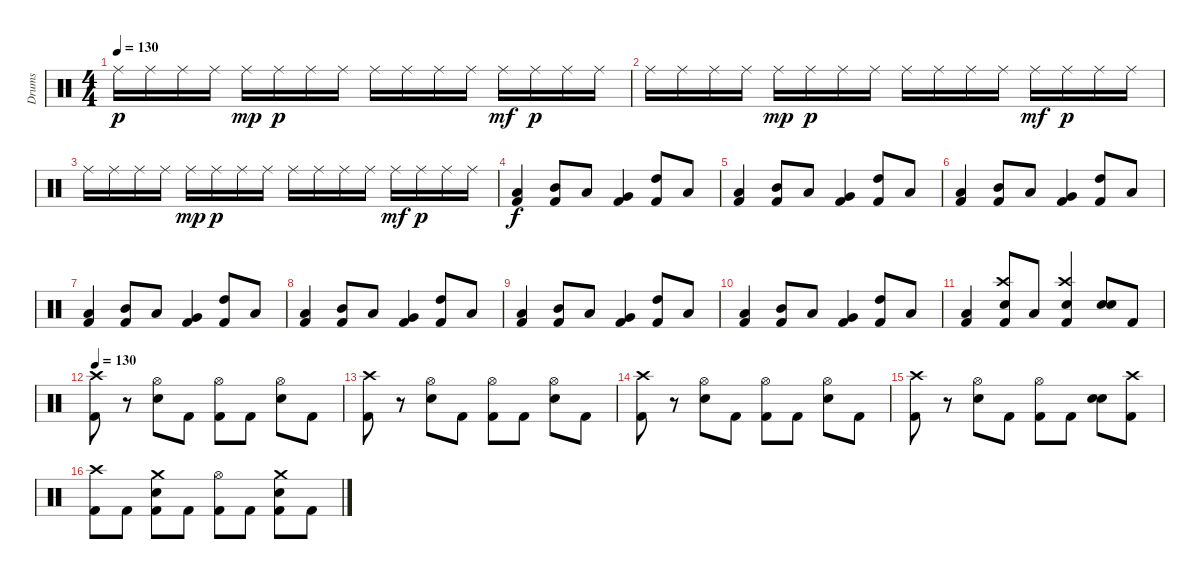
\track ("Drums" "Drums") {instrument percussion}
\staff {score}
\articulation defaults
\ts (4 4)
\tempo 130
\clef neutral
\ks c "Ride (middle)".16{dy p} "Ride (middle)".16 "Ride (middle)".16 "Ride (middle)".16 "Ride (middle)".16{dy mp} "Ride (middle)".16{dy p} "Ride (middle)".16 "Ride (middle)".16 "Ride (middle)".16 "Ride (middle)".16 "Ride (middle)".16 "Ride (middle)".16 "Ride (middle)".16{dy mf} "Ride (middle)".16{dy p} "Ride (middle)".16 "Ride (middle)".16
|
"Ride (middle)".16 "Ride (middle)".16 "Ride (middle)".16 "Ride (middle)".16 "Ride (middle)".16{dy mp} "Ride (middle)".16{dy p} "Ride (middle)".16 "Ride (middle)".16 "Ride (middle)".16 "Ride (middle)".16 "Ride (middle)".16 "Ride (middle)".16 "Ride (middle)".16{dy mf} "Ride (middle)".16{dy p} "Ride (middle)".16 "Ride (middle)".16 |
"Ride (middle)".16 "Ride (middle)".16 "Ride (middle)".16 "Ride (middle)".16 "Ride (middle)".16{dy mp} "Ride (middle)".16{dy p} "Ride (middle)".16 "Ride (middle)".16 "Ride (middle)".16 "Ride (middle)".16 "Ride (middle)".16 "Ride (middle)".16 "Ride (middle)".16{dy mf} "Ride (middle)".16{dy p} "Ride (middle)".16 "Ride (middle)".16 |
("Low Floor Tom (hit)" "Kick (hit) 2").4{dy f} ("Mid Tom (hit)" "Kick (hit) 2").8 "Low Floor Tom (hit)".8 ("Very Low Tom (hit)" "Kick (hit) 2").4 ("High Tom (hit)" "Kick (hit) 2").8 "Low Tom (hit)".8 |
("Low Floor Tom (hit)" "Kick (hit) 2").4 ("Mid Tom (hit)" "Kick (hit) 2").8 "Low Floor Tom (hit)".8 ("Very Low Tom (hit)" "Kick (hit) 2").4 ("High Tom (hit)" "Kick (hit) 2").8 "Low Tom (hit)".8 |
("Low Floor Tom (hit)" "Kick (hit) 2").4 ("Mid Tom (hit)" "Kick (hit) 2").8 "Low Floor Tom (hit)".8 ("Very Low Tom (hit)" "Kick (hit) 2").4 ("High Tom (hit)" "Kick (hit) 2").8 "Low Tom (hit)".8 |
("Low Floor Tom (hit)" "Kick (hit) 2").4 ("Mid Tom (hit)" "Kick (hit) 2").8 "Low Floor Tom (hit)".8 ("Very Low Tom (hit)" "Kick (hit) 2").4 ("High Tom (hit)" "Kick (hit) 2").8 "Low Tom (hit)".8 |
("Low Floor Tom (hit)" "Kick (hit) 2").4 ("Mid Tom (hit)" "Kick (hit) 2").8 "Low Floor Tom (hit)".8 ("Very Low Tom (hit)" "Kick (hit) 2").4 ("High Tom (hit)" "Kick (hit) 2").8 "Low Tom (hit)".8 |
("Low Floor Tom (hit)" "Kick (hit) 2").4 ("Mid Tom (hit)" "Kick (hit) 2").8 "Low Floor Tom (hit)".8 ("Very Low Tom (hit)" "Kick (hit) 2").4 ("High Tom (hit)" "Kick (hit) 2").8 "Low Tom (hit)".8 |
("Low Floor Tom (hit)" "Kick (hit) 2").4 ("Mid Tom (hit)" "Kick (hit) 2").8 "Low Floor Tom (hit)".8 ("Very Low Tom (hit)" "Kick (hit) 2").4 ("High Tom (hit)" "Kick (hit) 2").8 "Low Tom (hit)".8 |
("Low Floor Tom (hit)" "Kick (hit) 2").4 ("Crash high (hit)" "Electric Snare (hit)" "Kick (hit) 2").8 "Low Floor Tom (hit)".8 ("Crash high (hit)" "Electric Snare (hit)" "Kick (hit) 2").4 ("Electric Snare (hit)" "Electric Snare (hit)").8{bd 240} "Kick (hit) 2".8 |
\tempo 130
("Crash high (hit)" "Kick (hit) 2").8 r.8 ("Hi-Hat (open)" "Electric Snare (hit)").8 "Kick (hit) 2".8 ("Hi-Hat (open)" "Kick (hit) 2").8 "Kick (hit) 2".8 ("Hi-Hat (open)" "Electric Snare (hit)").8 "Kick (hit) 2".8 |
("Crash high (hit)" "Kick (hit) 2").8 r.8 ("Hi-Hat (open)" "Electric Snare (hit)").8 "Kick (hit) 2".8 ("Hi-Hat (open)" "Kick (hit) 2").8 "Kick (hit) 2".8 ("Hi-Hat (open)" "Electric Snare (hit)").8 "Kick (hit) 2".8 |
("Crash high (hit)" "Kick (hit) 2").8 r.8 ("Hi-Hat (open)" "Electric Snare (hit)").8 "Kick (hit) 2".8 ("Hi-Hat (open)" "Kick (hit) 2").8 "Kick (hit) 2".8 ("Hi-Hat (open)" "Electric Snare (hit)").8 "Kick (hit) 2".8 |
("Crash high (hit)" "Kick (hit) 2").8 r.8 ("Hi-Hat (open)" "Electric Snare (hit)").8 "Kick (hit) 2".8 ("Hi-Hat (open)" "Kick (hit) 2").8 "Kick (hit) 2".8 ("Electric Snare (hit)" "Electric Snare (hit)").8{bd 240} ("Crash high (hit)" "Kick (hit) 2").8 |
("Crash high (hit)" "Kick (hit) 2").8 "Kick (hit) 2".8 ("Crash medium (hit)" "Electric Snare (hit)" "Kick (hit) 2").8 "Kick (hit) 2".8 ("Hi-Hat (open)" "Kick (hit) 2").8 "Kick (hit) 2".8 ("Crash medium (hit)" "Electric Snare (hit)" "Kick (hit) 2").8 "Kick (hit) 2".8
